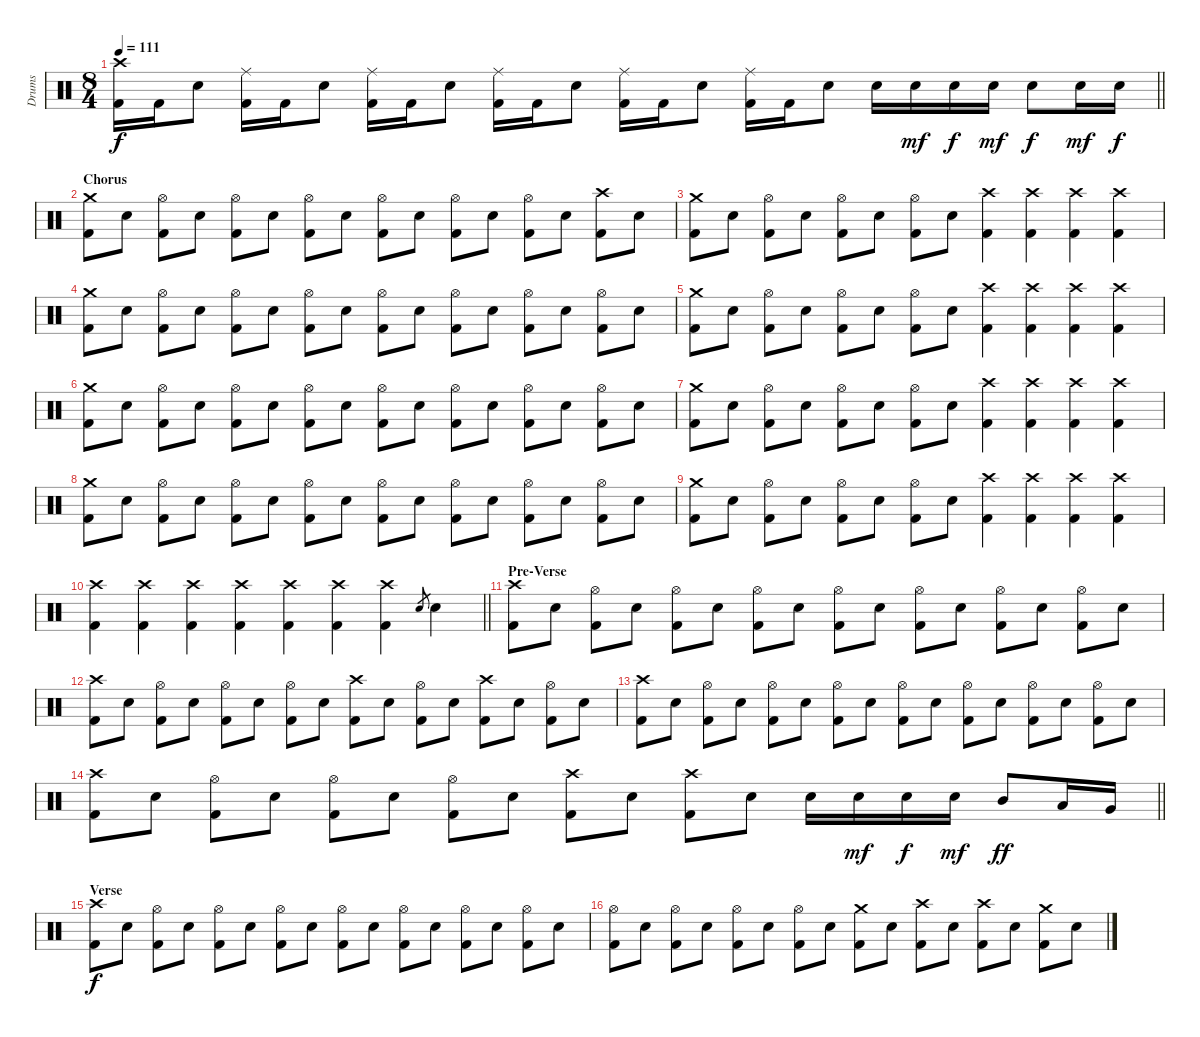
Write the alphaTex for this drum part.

\track ("Drums" "Drums") {instrument percussion}
\staff {score}
\articulation defaults
\ts (8 4)
\tempo 111
\clef neutral
\barLineRight lightlight
\ks c
("Crash high (hit)" "Kick (hit) 2").16{dy f} "Kick (hit) 2".16 "Snare (hit) 2".8 ("Ride (middle)" "Kick (hit) 2").16 "Kick (hit) 2".16 "Snare (hit) 2".8 ("Ride (middle)" "Kick (hit) 2").16 "Kick (hit) 2".16 "Snare (hit) 2".8 ("Ride (middle)" "Kick (hit) 2").16 "Kick (hit) 2".16 "Snare (hit) 2".8 ("Ride (middle)" "Kick (hit) 2").16 "Kick (hit) 2".16 "Snare (hit) 2".8 ("Ride (middle)" "Kick (hit) 2").16 "Kick (hit) 2".16 "Snare (hit) 2".8 "Snare (hit) 2".16 "Snare (hit) 2".16{dy mf} "Snare (hit) 2".16{dy f} "Snare (hit) 2".16{dy mf} "Snare (hit) 2".8{dy f} "Snare (hit) 2".16{dy mf} "Snare (hit) 2".16{dy f} |
\section ("" "Chorus")
("Crash medium (hit)" "Kick (hit) 2").8 "Snare (hit) 2".8 ("Hi-Hat (open)" "Kick (hit) 2").8 "Snare (hit) 2".8 ("Hi-Hat (open)" "Kick (hit) 2").8 "Snare (hit) 2".8 ("Hi-Hat (open)" "Kick (hit) 2").8 "Snare (hit) 2".8 ("Hi-Hat (open)" "Kick (hit) 2").8 "Snare (hit) 2".8 ("Hi-Hat (open)" "Kick (hit) 2").8 "Snare (hit) 2".8 ("Hi-Hat (open)" "Kick (hit) 2").8 "Snare (hit) 2".8 ("Crash high (hit)" "Kick (hit) 2").8 "Snare (hit) 2".8 |
("Crash medium (hit)" "Kick (hit) 2").8 "Snare (hit) 2".8 ("Hi-Hat (open)" "Kick (hit) 2").8 "Snare (hit) 2".8 ("Hi-Hat (open)" "Kick (hit) 2").8 "Snare (hit) 2".8 ("Hi-Hat (open)" "Kick (hit) 2").8 "Snare (hit) 2".8 ("Crash high (hit)" "Kick (hit) 2").4 ("Crash high (hit)" "Kick (hit) 2").4 ("Crash high (hit)" "Kick (hit) 2").4 ("Crash high (hit)" "Kick (hit) 2").4 |
("Crash medium (hit)" "Kick (hit) 2").8 "Snare (hit) 2".8 ("Hi-Hat (open)" "Kick (hit) 2").8 "Snare (hit) 2".8 ("Hi-Hat (open)" "Kick (hit) 2").8 "Snare (hit) 2".8 ("Hi-Hat (open)" "Kick (hit) 2").8 "Snare (hit) 2".8 ("Hi-Hat (open)" "Kick (hit) 2").8 "Snare (hit) 2".8 ("Hi-Hat (open)" "Kick (hit) 2").8 "Snare (hit) 2".8 ("Hi-Hat (open)" "Kick (hit) 2").8 "Snare (hit) 2".8 ("Hi-Hat (open)" "Kick (hit) 2").8 "Snare (hit) 2".8 |
("Crash medium (hit)" "Kick (hit) 2").8 "Snare (hit) 2".8 ("Hi-Hat (open)" "Kick (hit) 2").8 "Snare (hit) 2".8 ("Hi-Hat (open)" "Kick (hit) 2").8 "Snare (hit) 2".8 ("Hi-Hat (open)" "Kick (hit) 2").8 "Snare (hit) 2".8 ("Crash high (hit)" "Kick (hit) 2").4 ("Crash high (hit)" "Kick (hit) 2").4 ("Crash high (hit)" "Kick (hit) 2").4 ("Crash high (hit)" "Kick (hit) 2").4 |
("Crash medium (hit)" "Kick (hit) 2").8 "Snare (hit) 2".8 ("Hi-Hat (open)" "Kick (hit) 2").8 "Snare (hit) 2".8 ("Hi-Hat (open)" "Kick (hit) 2").8 "Snare (hit) 2".8 ("Hi-Hat (open)" "Kick (hit) 2").8 "Snare (hit) 2".8 ("Hi-Hat (open)" "Kick (hit) 2").8 "Snare (hit) 2".8 ("Hi-Hat (open)" "Kick (hit) 2").8 "Snare (hit) 2".8 ("Hi-Hat (open)" "Kick (hit) 2").8 "Snare (hit) 2".8 ("Hi-Hat (open)" "Kick (hit) 2").8 "Snare (hit) 2".8 |
("Crash medium (hit)" "Kick (hit) 2").8 "Snare (hit) 2".8 ("Hi-Hat (open)" "Kick (hit) 2").8 "Snare (hit) 2".8 ("Hi-Hat (open)" "Kick (hit) 2").8 "Snare (hit) 2".8 ("Hi-Hat (open)" "Kick (hit) 2").8 "Snare (hit) 2".8 ("Crash high (hit)" "Kick (hit) 2").4 ("Crash high (hit)" "Kick (hit) 2").4 ("Crash high (hit)" "Kick (hit) 2").4 ("Crash high (hit)" "Kick (hit) 2").4 |
("Crash medium (hit)" "Kick (hit) 2").8 "Snare (hit) 2".8 ("Hi-Hat (open)" "Kick (hit) 2").8 "Snare (hit) 2".8 ("Hi-Hat (open)" "Kick (hit) 2").8 "Snare (hit) 2".8 ("Hi-Hat (open)" "Kick (hit) 2").8 "Snare (hit) 2".8 ("Hi-Hat (open)" "Kick (hit) 2").8 "Snare (hit) 2".8 ("Hi-Hat (open)" "Kick (hit) 2").8 "Snare (hit) 2".8 ("Hi-Hat (open)" "Kick (hit) 2").8 "Snare (hit) 2".8 ("Hi-Hat (open)" "Kick (hit) 2").8 "Snare (hit) 2".8 |
("Crash medium (hit)" "Kick (hit) 2").8 "Snare (hit) 2".8 ("Hi-Hat (open)" "Kick (hit) 2").8 "Snare (hit) 2".8 ("Hi-Hat (open)" "Kick (hit) 2").8 "Snare (hit) 2".8 ("Hi-Hat (open)" "Kick (hit) 2").8 "Snare (hit) 2".8 ("Crash high (hit)" "Kick (hit) 2").4 ("Crash high (hit)" "Kick (hit) 2").4 ("Crash high (hit)" "Kick (hit) 2").4 ("Crash high (hit)" "Kick (hit) 2").4 |
\barLineRight lightlight
("Crash high (hit)" "Kick (hit) 2").4 ("Crash high (hit)" "Kick (hit) 2").4 ("Crash high (hit)" "Kick (hit) 2").4 ("Crash high (hit)" "Kick (hit) 2").4 ("Crash high (hit)" "Kick (hit) 2").4 ("Crash high (hit)" "Kick (hit) 2").4 ("Crash high (hit)" "Kick (hit) 2").4 "Snare (hit) 2".8{gr} "Snare (hit) 2".4 |
\section ("" "Pre-Verse")
("Crash high (hit)" "Kick (hit) 2").8 "Snare (hit) 2".8 ("Hi-Hat (open)" "Kick (hit) 2").8 "Snare (hit) 2".8 ("Hi-Hat (open)" "Kick (hit) 2").8 "Snare (hit) 2".8 ("Hi-Hat (open)" "Kick (hit) 2").8 "Snare (hit) 2".8 ("Hi-Hat (open)" "Kick (hit) 2").8 "Snare (hit) 2".8 ("Hi-Hat (open)" "Kick (hit) 2").8 "Snare (hit) 2".8 ("Hi-Hat (open)" "Kick (hit) 2").8 "Snare (hit) 2".8 ("Hi-Hat (open)" "Kick (hit) 2").8 "Snare (hit) 2".8 |
("Crash high (hit)" "Kick (hit) 2").8 "Snare (hit) 2".8 ("Hi-Hat (open)" "Kick (hit) 2").8 "Snare (hit) 2".8 ("Hi-Hat (open)" "Kick (hit) 2").8 "Snare (hit) 2".8 ("Hi-Hat (open)" "Kick (hit) 2").8 "Snare (hit) 2".8 ("Crash high (hit)" "Kick (hit) 2").8 "Snare (hit) 2".8 ("Hi-Hat (open)" "Kick (hit) 2").8 "Snare (hit) 2".8 ("Crash high (hit)" "Kick (hit) 2").8 "Snare (hit) 2".8 ("Hi-Hat (open)" "Kick (hit) 2").8 "Snare (hit) 2".8 |
("Crash high (hit)" "Kick (hit) 2").8 "Snare (hit) 2".8 ("Hi-Hat (open)" "Kick (hit) 2").8 "Snare (hit) 2".8 ("Hi-Hat (open)" "Kick (hit) 2").8 "Snare (hit) 2".8 ("Hi-Hat (open)" "Kick (hit) 2").8 "Snare (hit) 2".8 ("Hi-Hat (open)" "Kick (hit) 2").8 "Snare (hit) 2".8 ("Hi-Hat (open)" "Kick (hit) 2").8 "Snare (hit) 2".8 ("Hi-Hat (open)" "Kick (hit) 2").8 "Snare (hit) 2".8 ("Hi-Hat (open)" "Kick (hit) 2").8 "Snare (hit) 2".8 |
\barLineRight lightlight
("Crash high (hit)" "Kick (hit) 2").8 "Snare (hit) 2".8 ("Hi-Hat (open)" "Kick (hit) 2").8 "Snare (hit) 2".8 ("Hi-Hat (open)" "Kick (hit) 2").8 "Snare (hit) 2".8 ("Hi-Hat (open)" "Kick (hit) 2").8 "Snare (hit) 2".8 ("Crash high (hit)" "Kick (hit) 2").8 "Snare (hit) 2".8 ("Crash high (hit)" "Kick (hit) 2").8 "Snare (hit) 2".8 "Snare (hit) 2".16 "Snare (hit) 2".16{dy mf} "Snare (hit) 2".16{dy f} "Snare (hit) 2".16{dy mf} "Mid Tom (hit)".8{dy ff} "Low Tom (hit)".16 "Very Low Tom (hit)".16 |
\section ("" "Verse")
("Crash high (hit)" "Kick (hit) 2").8{dy f} "Snare (hit) 2".8 ("Hi-Hat (open)" "Kick (hit) 2").8 "Snare (hit) 2".8 ("Hi-Hat (open)" "Kick (hit) 2").8 "Snare (hit) 2".8 ("Hi-Hat (open)" "Kick (hit) 2").8 "Snare (hit) 2".8 ("Hi-Hat (open)" "Kick (hit) 2").8 "Snare (hit) 2".8 ("Hi-Hat (open)" "Kick (hit) 2").8 "Snare (hit) 2".8 ("Hi-Hat (open)" "Kick (hit) 2").8 "Snare (hit) 2".8 ("Hi-Hat (open)" "Kick (hit) 2").8 "Snare (hit) 2".8 |
("Hi-Hat (open)" "Kick (hit) 2").8 "Snare (hit) 2".8 ("Hi-Hat (open)" "Kick (hit) 2").8 "Snare (hit) 2".8 ("Hi-Hat (open)" "Kick (hit) 2").8 "Snare (hit) 2".8 ("Hi-Hat (open)" "Kick (hit) 2").8 "Snare (hit) 2".8 ("Crash medium (hit)" "Kick (hit) 2").8 "Snare (hit) 2".8 ("Crash high (hit)" "Kick (hit) 2").8 "Snare (hit) 2".8 ("Crash high (hit)" "Kick (hit) 2").8 "Snare (hit) 2".8 ("Crash medium (hit)" "Kick (hit) 2").8 "Snare (hit) 2".8
